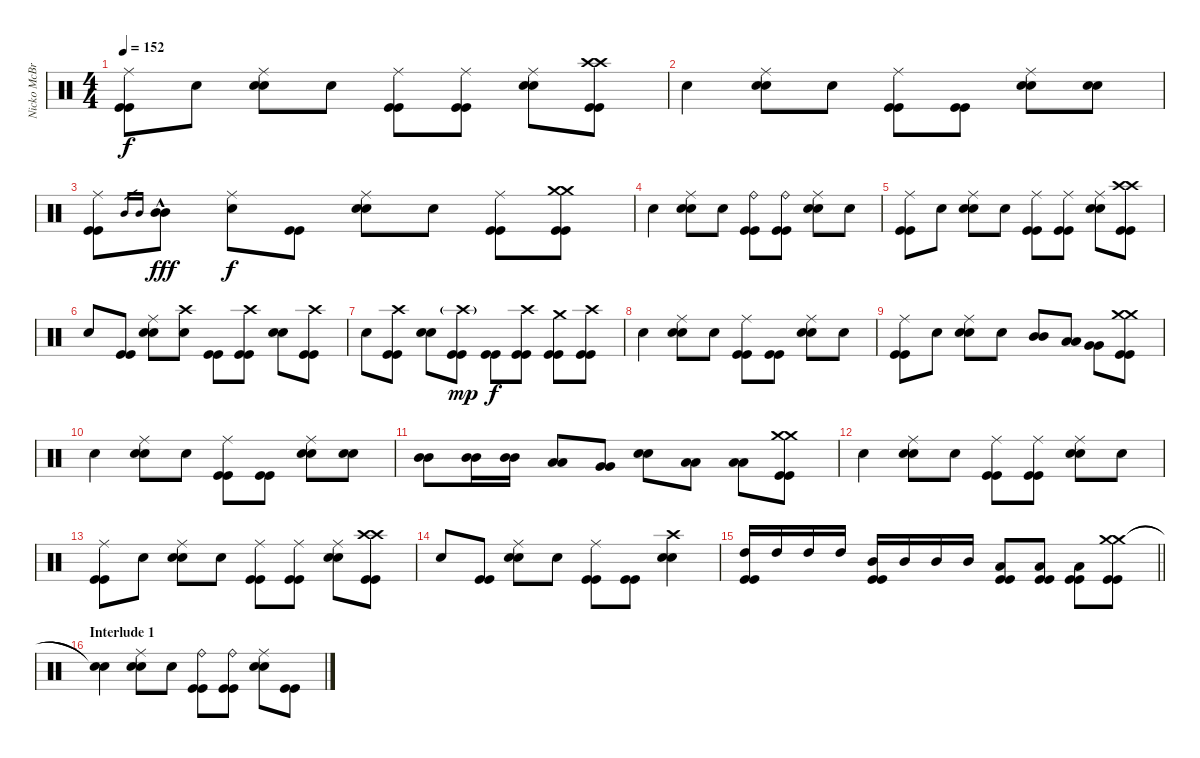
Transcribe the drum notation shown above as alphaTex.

\track ("Nicko McBrain" "Nicko McBr") {instrument percussion}
\staff {score}
\articulation defaults
\ts (4 4)
\tempo 152
\clef neutral
\ks c
("Ride (middle)" "Kick (hit)" "Kick (hit)").8{dy f} "Snare (hit)".8 ("Ride (middle)" "Electric Snare (hit)" "Electric Snare (hit)").8 "Snare (hit)".8 ("Ride (middle)" "Kick (hit)" "Kick (hit)").8 ("Ride (middle)" "Kick (hit)" "Kick (hit)").8 ("Ride (middle)" "Electric Snare (hit)" "Electric Snare (hit)").8 ("Crash high (hit)" "Crash high (hit)" "Kick (hit)" "Kick (hit)").8 |
"Snare (hit)".4 ("Ride (middle)" "Electric Snare (hit)" "Electric Snare (hit)").8 "Snare (hit)".8 ("Ride (middle)" "Kick (hit)" "Kick (hit)").8 ("Kick (hit)" "Kick (hit)").8 ("Ride (middle)" "Electric Snare (hit)" "Electric Snare (hit)").8 ("Snare (hit)" "Snare (hit)").8 |
("Ride (middle)" "Kick (hit)" "Kick (hit)").8 "Mid Tom (hit)".16{gr} "Mid Tom (hit)".16{gr} ("Mid Tom (hit)"{hac} "Mid Tom (hit)").8{dy fff} ("Ride (middle)" "Snare (hit)").8{dy f} ("Kick (hit)" "Kick (hit)").8 ("Ride (middle)" "Electric Snare (hit)" "Electric Snare (hit)").8 "Snare (hit)".8 ("Ride (middle)" "Kick (hit)" "Kick (hit)").8 ("Crash medium (hit)" "Crash medium (hit)" "Kick (hit)" "Kick (hit)").8 |
"Snare (hit)".4 ("Ride (middle)" "Electric Snare (hit)" "Electric Snare (hit)").8 "Snare (hit)".8 ("Ride (bell)" "Kick (hit)" "Kick (hit)").8 ("Ride (bell)" "Kick (hit)" "Kick (hit)").8 ("Ride (middle)" "Electric Snare (hit)" "Electric Snare (hit)").8 "Snare (hit)".8 |
("Ride (middle)" "Kick (hit)" "Kick (hit)").8 "Snare (hit)".8 ("Ride (middle)" "Electric Snare (hit)" "Electric Snare (hit)").8 "Snare (hit)".8 ("Ride (middle)" "Kick (hit)" "Kick (hit)").8 ("Ride (middle)" "Kick (hit)" "Kick (hit)").8 ("Ride (middle)" "Electric Snare (hit)" "Electric Snare (hit)").8 ("Crash high (hit)" "Crash high (hit)" "Kick (hit)" "Kick (hit)").8 |
"Snare (hit)".8 ("Kick (hit)" "Kick (hit)").8 ("Ride (middle)" "Electric Snare (hit)" "Electric Snare (hit)").8 ("Crash high (hit)" "Snare (hit)").8 ("Kick (hit)" "Kick (hit)").8 ("Crash high (hit)" "Kick (hit)" "Kick (hit)").8 ("Electric Snare (hit)" "Electric Snare (hit)").8 ("Crash high (hit)" "Kick (hit)" "Kick (hit)").8 |
"Snare (hit)".8 ("Crash high (hit)" "Kick (hit)" "Kick (hit)").8 ("Electric Snare (hit)" "Electric Snare (hit)").8 ("Crash high (hit)"{g} "Kick (hit)" "Kick (hit)").8{dy mp} ("Kick (hit)" "Kick (hit)").8{dy f} ("Crash high (hit)" "Kick (hit)" "Kick (hit)").8 ("Crash medium (hit)" "Kick (hit)" "Kick (hit)").8 ("Crash high (hit)" "Kick (hit)" "Kick (hit)").8 |
"Snare (hit)".4 ("Ride (middle)" "Electric Snare (hit)" "Electric Snare (hit)").8 "Snare (hit)".8 ("Ride (middle)" "Kick (hit)" "Kick (hit)").8 ("Kick (hit)" "Kick (hit)").8 ("Ride (middle)" "Electric Snare (hit)" "Electric Snare (hit)").8 "Snare (hit)".8 |
("Ride (middle)" "Kick (hit)" "Kick (hit)").8 "Snare (hit)".8 ("Ride (middle)" "Electric Snare (hit)" "Electric Snare (hit)").8 "Snare (hit)".8 ("Mid Tom (hit)" "Mid Tom (hit)").8 ("Low Tom (hit)" "Low Tom (hit)").8 ("Very Low Tom (hit)" "Very Low Tom (hit)").8 ("Crash medium (hit)" "Crash medium (hit)" "Kick (hit)" "Kick (hit)").8 |
"Snare (hit)".4 ("Ride (middle)" "Electric Snare (hit)" "Electric Snare (hit)").8 "Snare (hit)".8 ("Ride (middle)" "Kick (hit)" "Kick (hit)").8 ("Kick (hit)" "Kick (hit)").8 ("Ride (middle)" "Electric Snare (hit)" "Electric Snare (hit)").8 ("Snare (hit)" "Snare (hit)").8 |
("Mid Tom (hit)" "Mid Tom (hit)").8 ("Mid Tom (hit)" "Mid Tom (hit)").16 ("Mid Tom (hit)" "Mid Tom (hit)").16 ("Low Tom (hit)" "Low Tom (hit)").8 ("Very Low Tom (hit)" "Very Low Tom (hit)").8 ("Electric Snare (hit)" "Electric Snare (hit)").8 ("Low Floor Tom (hit)" "Low Floor Tom (hit)").8 ("Low Floor Tom (hit)" "Low Floor Tom (hit)").8 ("Crash medium (hit)" "Crash medium (hit)" "Kick (hit)" "Kick (hit)").8 |
"Snare (hit)".4 ("Ride (middle)" "Electric Snare (hit)" "Electric Snare (hit)").8 "Snare (hit)".8 ("Ride (middle)" "Kick (hit)" "Kick (hit)").8 ("Ride (middle)" "Kick (hit)" "Kick (hit)").8 ("Ride (middle)" "Electric Snare (hit)" "Electric Snare (hit)").8 "Snare (hit)".8 |
("Ride (middle)" "Kick (hit)" "Kick (hit)").8 "Snare (hit)".8 ("Ride (middle)" "Electric Snare (hit)" "Electric Snare (hit)").8 "Snare (hit)".8 ("Ride (middle)" "Kick (hit)" "Kick (hit)").8 ("Ride (middle)" "Kick (hit)" "Kick (hit)").8 ("Ride (middle)" "Electric Snare (hit)" "Electric Snare (hit)").8 ("Crash high (hit)" "Crash high (hit)" "Kick (hit)" "Kick (hit)").8 |
"Snare (hit)".8 ("Kick (hit)" "Kick (hit)").8 ("Ride (middle)" "Electric Snare (hit)" "Electric Snare (hit)").8 "Snare (hit)".8 ("Ride (middle)" "Kick (hit)" "Kick (hit)").8 ("Kick (hit)" "Kick (hit)").8 ("Crash high (hit)" "Electric Snare (hit)" "Electric Snare (hit)").4 |
\barLineRight lightlight
("High Tom (hit)" "Kick (hit)" "Kick (hit)").16 "High Tom (hit)".16 "High Tom (hit)".16 "High Tom (hit)".16 ("Mid Tom (hit)" "Kick (hit)" "Kick (hit)").16 "Mid Tom (hit)".16 "Mid Tom (hit)".16 "Mid Tom (hit)".16 ("Low Tom (hit)" "Kick (hit)" "Kick (hit)").8 ("Low Tom (hit)" "Kick (hit)" "Kick (hit)").8 ("Low Tom (hit)" "Kick (hit)" "Kick (hit)").8 ("Crash medium (hit)" "Crash medium (hit)" "Kick (hit)" "Kick (hit)").8 |
\section ("" "Interlude 1")
("Snare (hit)"{t} "Snare (hit)"{t}).4 ("Ride (middle)" "Electric Snare (hit)" "Electric Snare (hit)").8 "Snare (hit)".8 ("Ride (bell)" "Kick (hit)" "Kick (hit)").8 ("Ride (bell)" "Kick (hit)" "Kick (hit)").8 ("Ride (middle)" "Electric Snare (hit)" "Electric Snare (hit)").8 ("Kick (hit)" "Kick (hit)").8
